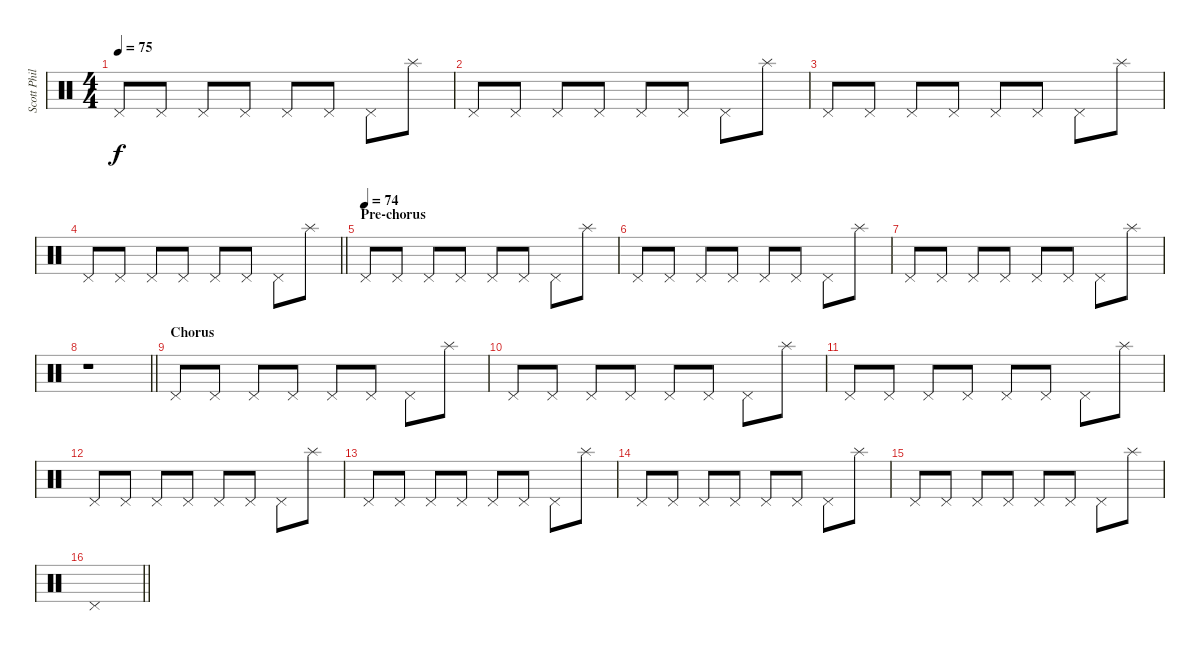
\track ("Scott Phillips (Drums)" "Scott Phil") {instrument percussion}
\staff {score}
\articulation defaults
\ts (4 4)
\tempo 75
\clef neutral
\ks c "Pedal Hi-Hat (hit)".8{dy f} "Pedal Hi-Hat (hit)".8 "Pedal Hi-Hat (hit)".8 "Pedal Hi-Hat (hit)".8 "Pedal Hi-Hat (hit)".8 "Pedal Hi-Hat (hit)".8 "Pedal Hi-Hat (hit)".8 "Splash (hit)".8
|
"Pedal Hi-Hat (hit)".8 "Pedal Hi-Hat (hit)".8 "Pedal Hi-Hat (hit)".8 "Pedal Hi-Hat (hit)".8 "Pedal Hi-Hat (hit)".8 "Pedal Hi-Hat (hit)".8 "Pedal Hi-Hat (hit)".8 "Splash (hit)".8 |
"Pedal Hi-Hat (hit)".8 "Pedal Hi-Hat (hit)".8 "Pedal Hi-Hat (hit)".8 "Pedal Hi-Hat (hit)".8 "Pedal Hi-Hat (hit)".8 "Pedal Hi-Hat (hit)".8 "Pedal Hi-Hat (hit)".8 "Splash (hit)".8 |
\barLineRight lightlight "Pedal Hi-Hat (hit)".8 "Pedal Hi-Hat (hit)".8 "Pedal Hi-Hat (hit)".8 "Pedal Hi-Hat (hit)".8 "Pedal Hi-Hat (hit)".8 "Pedal Hi-Hat (hit)".8 "Pedal Hi-Hat (hit)".8 "Splash (hit)".8
|
\section ("" "Pre-chorus")
\tempo (74)
"Pedal Hi-Hat (hit)".8 "Pedal Hi-Hat (hit)".8 "Pedal Hi-Hat (hit)".8 "Pedal Hi-Hat (hit)".8 "Pedal Hi-Hat (hit)".8 "Pedal Hi-Hat (hit)".8 "Pedal Hi-Hat (hit)".8 "Splash (hit)".8 |
"Pedal Hi-Hat (hit)".8 "Pedal Hi-Hat (hit)".8 "Pedal Hi-Hat (hit)".8 "Pedal Hi-Hat (hit)".8 "Pedal Hi-Hat (hit)".8 "Pedal Hi-Hat (hit)".8 "Pedal Hi-Hat (hit)".8 "Splash (hit)".8 |
"Pedal Hi-Hat (hit)".8 "Pedal Hi-Hat (hit)".8 "Pedal Hi-Hat (hit)".8 "Pedal Hi-Hat (hit)".8 "Pedal Hi-Hat (hit)".8 "Pedal Hi-Hat (hit)".8 "Pedal Hi-Hat (hit)".8 "Splash (hit)".8 |
\barLineRight lightlight
r.1 |
\section ("" "Chorus")
"Pedal Hi-Hat (hit)".8 "Pedal Hi-Hat (hit)".8 "Pedal Hi-Hat (hit)".8 "Pedal Hi-Hat (hit)".8 "Pedal Hi-Hat (hit)".8 "Pedal Hi-Hat (hit)".8 "Pedal Hi-Hat (hit)".8 "Splash (hit)".8 |
"Pedal Hi-Hat (hit)".8 "Pedal Hi-Hat (hit)".8 "Pedal Hi-Hat (hit)".8 "Pedal Hi-Hat (hit)".8 "Pedal Hi-Hat (hit)".8 "Pedal Hi-Hat (hit)".8 "Pedal Hi-Hat (hit)".8 "Splash (hit)".8 |
"Pedal Hi-Hat (hit)".8 "Pedal Hi-Hat (hit)".8 "Pedal Hi-Hat (hit)".8 "Pedal Hi-Hat (hit)".8 "Pedal Hi-Hat (hit)".8 "Pedal Hi-Hat (hit)".8 "Pedal Hi-Hat (hit)".8 "Splash (hit)".8 |
"Pedal Hi-Hat (hit)".8 "Pedal Hi-Hat (hit)".8 "Pedal Hi-Hat (hit)".8 "Pedal Hi-Hat (hit)".8 "Pedal Hi-Hat (hit)".8 "Pedal Hi-Hat (hit)".8 "Pedal Hi-Hat (hit)".8 "Splash (hit)".8 |
"Pedal Hi-Hat (hit)".8 "Pedal Hi-Hat (hit)".8 "Pedal Hi-Hat (hit)".8 "Pedal Hi-Hat (hit)".8 "Pedal Hi-Hat (hit)".8 "Pedal Hi-Hat (hit)".8 "Pedal Hi-Hat (hit)".8 "Splash (hit)".8 |
"Pedal Hi-Hat (hit)".8 "Pedal Hi-Hat (hit)".8 "Pedal Hi-Hat (hit)".8 "Pedal Hi-Hat (hit)".8 "Pedal Hi-Hat (hit)".8 "Pedal Hi-Hat (hit)".8 "Pedal Hi-Hat (hit)".8 "Splash (hit)".8 |
"Pedal Hi-Hat (hit)".8 "Pedal Hi-Hat (hit)".8 "Pedal Hi-Hat (hit)".8 "Pedal Hi-Hat (hit)".8 "Pedal Hi-Hat (hit)".8 "Pedal Hi-Hat (hit)".8 "Pedal Hi-Hat (hit)".8 "Splash (hit)".8 |
\barLineRight lightlight "Pedal Hi-Hat (hit)".1
